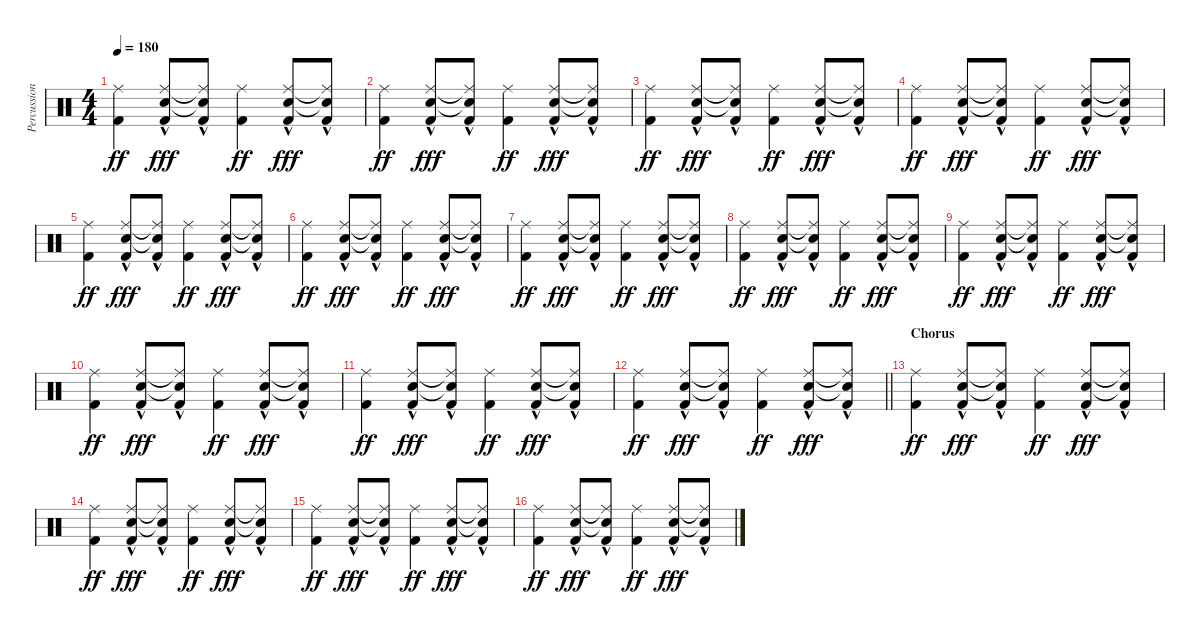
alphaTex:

\track ("Percussion" "Percussion") {instrument percussion}
\staff {score}
\articulation defaults
\ts (4 4)
\tempo 180
\clef neutral
\ks c
("Kick (hit) 2" "Ride (middle)").4{dy ff} ("Electric Snare (hit)" "Ride (middle)" "Kick (hit) 2"{hac}).8{dy fff} ("Electric Snare (hit)"{t} "Ride (middle)"{t} "Kick (hit) 2"{hac}).8 ("Kick (hit) 2" "Ride (middle)").4{dy ff} ("Electric Snare (hit)" "Ride (middle)" "Kick (hit) 2"{hac}).8{dy fff} ("Electric Snare (hit)"{t} "Ride (middle)"{t} "Kick (hit) 2"{hac}).8 |
("Kick (hit) 2" "Ride (middle)").4{dy ff} ("Electric Snare (hit)" "Ride (middle)" "Kick (hit) 2"{hac}).8{dy fff} ("Electric Snare (hit)"{t} "Ride (middle)"{t} "Kick (hit) 2"{hac}).8 ("Kick (hit) 2" "Ride (middle)").4{dy ff} ("Electric Snare (hit)" "Ride (middle)" "Kick (hit) 2"{hac}).8{dy fff} ("Electric Snare (hit)"{t} "Ride (middle)"{t} "Kick (hit) 2"{hac}).8 |
("Kick (hit) 2" "Ride (middle)").4{dy ff} ("Electric Snare (hit)" "Ride (middle)" "Kick (hit) 2"{hac}).8{dy fff} ("Electric Snare (hit)"{t} "Ride (middle)"{t} "Kick (hit) 2"{hac}).8 ("Kick (hit) 2" "Ride (middle)").4{dy ff} ("Electric Snare (hit)" "Ride (middle)" "Kick (hit) 2"{hac}).8{dy fff} ("Electric Snare (hit)"{t} "Ride (middle)"{t} "Kick (hit) 2"{hac}).8 |
("Kick (hit) 2" "Ride (middle)").4{dy ff} ("Electric Snare (hit)" "Ride (middle)" "Kick (hit) 2"{hac}).8{dy fff} ("Electric Snare (hit)"{t} "Ride (middle)"{t} "Kick (hit) 2"{hac}).8 ("Kick (hit) 2" "Ride (middle)").4{dy ff} ("Electric Snare (hit)" "Ride (middle)" "Kick (hit) 2"{hac}).8{dy fff} ("Electric Snare (hit)"{t} "Ride (middle)"{t} "Kick (hit) 2"{hac}).8 |
("Kick (hit) 2" "Ride (middle)").4{dy ff} ("Electric Snare (hit)" "Ride (middle)" "Kick (hit) 2"{hac}).8{dy fff} ("Electric Snare (hit)"{t} "Ride (middle)"{t} "Kick (hit) 2"{hac}).8 ("Kick (hit) 2" "Ride (middle)").4{dy ff} ("Electric Snare (hit)" "Ride (middle)" "Kick (hit) 2"{hac}).8{dy fff} ("Electric Snare (hit)"{t} "Ride (middle)"{t} "Kick (hit) 2"{hac}).8 |
("Kick (hit) 2" "Ride (middle)").4{dy ff} ("Electric Snare (hit)" "Ride (middle)" "Kick (hit) 2"{hac}).8{dy fff} ("Electric Snare (hit)"{t} "Ride (middle)"{t} "Kick (hit) 2"{hac}).8 ("Kick (hit) 2" "Ride (middle)").4{dy ff} ("Electric Snare (hit)" "Ride (middle)" "Kick (hit) 2"{hac}).8{dy fff} ("Electric Snare (hit)"{t} "Ride (middle)"{t} "Kick (hit) 2"{hac}).8 |
("Kick (hit) 2" "Ride (middle)").4{dy ff} ("Electric Snare (hit)" "Ride (middle)" "Kick (hit) 2"{hac}).8{dy fff} ("Electric Snare (hit)"{t} "Ride (middle)"{t} "Kick (hit) 2"{hac}).8 ("Kick (hit) 2" "Ride (middle)").4{dy ff} ("Electric Snare (hit)" "Ride (middle)" "Kick (hit) 2"{hac}).8{dy fff} ("Electric Snare (hit)"{t} "Ride (middle)"{t} "Kick (hit) 2"{hac}).8 |
("Kick (hit) 2" "Ride (middle)").4{dy ff} ("Electric Snare (hit)" "Ride (middle)" "Kick (hit) 2"{hac}).8{dy fff} ("Electric Snare (hit)"{t} "Ride (middle)"{t} "Kick (hit) 2"{hac}).8 ("Kick (hit) 2" "Ride (middle)").4{dy ff} ("Electric Snare (hit)" "Ride (middle)" "Kick (hit) 2"{hac}).8{dy fff} ("Electric Snare (hit)"{t} "Ride (middle)"{t} "Kick (hit) 2"{hac}).8 |
("Kick (hit) 2" "Ride (middle)").4{dy ff} ("Electric Snare (hit)" "Ride (middle)" "Kick (hit) 2"{hac}).8{dy fff} ("Electric Snare (hit)"{t} "Ride (middle)"{t} "Kick (hit) 2"{hac}).8 ("Kick (hit) 2" "Ride (middle)").4{dy ff} ("Electric Snare (hit)" "Ride (middle)" "Kick (hit) 2"{hac}).8{dy fff} ("Electric Snare (hit)"{t} "Ride (middle)"{t} "Kick (hit) 2"{hac}).8 |
("Kick (hit) 2" "Ride (middle)").4{dy ff} ("Electric Snare (hit)" "Ride (middle)" "Kick (hit) 2"{hac}).8{dy fff} ("Electric Snare (hit)"{t} "Ride (middle)"{t} "Kick (hit) 2"{hac}).8 ("Kick (hit) 2" "Ride (middle)").4{dy ff} ("Electric Snare (hit)" "Ride (middle)" "Kick (hit) 2"{hac}).8{dy fff} ("Electric Snare (hit)"{t} "Ride (middle)"{t} "Kick (hit) 2"{hac}).8 |
("Kick (hit) 2" "Ride (middle)").4{dy ff} ("Electric Snare (hit)" "Ride (middle)" "Kick (hit) 2"{hac}).8{dy fff} ("Electric Snare (hit)"{t} "Ride (middle)"{t} "Kick (hit) 2"{hac}).8 ("Kick (hit) 2" "Ride (middle)").4{dy ff} ("Electric Snare (hit)" "Ride (middle)" "Kick (hit) 2"{hac}).8{dy fff} ("Electric Snare (hit)"{t} "Ride (middle)"{t} "Kick (hit) 2"{hac}).8 |
\barLineRight lightlight
("Kick (hit) 2" "Ride (middle)").4{dy ff} ("Electric Snare (hit)" "Ride (middle)" "Kick (hit) 2"{hac}).8{dy fff} ("Electric Snare (hit)"{t} "Ride (middle)"{t} "Kick (hit) 2"{hac}).8 ("Kick (hit) 2" "Ride (middle)").4{dy ff} ("Electric Snare (hit)" "Ride (middle)" "Kick (hit) 2"{hac}).8{dy fff} ("Electric Snare (hit)"{t} "Ride (middle)"{t} "Kick (hit) 2"{hac}).8 |
\section ("" "Chorus")
("Kick (hit) 2" "Ride (middle)").4{dy ff} ("Electric Snare (hit)" "Ride (middle)" "Kick (hit) 2"{hac}).8{dy fff} ("Electric Snare (hit)"{t} "Ride (middle)"{t} "Kick (hit) 2"{hac}).8 ("Kick (hit) 2" "Ride (middle)").4{dy ff} ("Electric Snare (hit)" "Ride (middle)" "Kick (hit) 2"{hac}).8{dy fff} ("Electric Snare (hit)"{t} "Ride (middle)"{t} "Kick (hit) 2"{hac}).8 |
("Kick (hit) 2" "Ride (middle)").4{dy ff} ("Electric Snare (hit)" "Ride (middle)" "Kick (hit) 2"{hac}).8{dy fff} ("Electric Snare (hit)"{t} "Ride (middle)"{t} "Kick (hit) 2"{hac}).8 ("Kick (hit) 2" "Ride (middle)").4{dy ff} ("Electric Snare (hit)" "Ride (middle)" "Kick (hit) 2"{hac}).8{dy fff} ("Electric Snare (hit)"{t} "Ride (middle)"{t} "Kick (hit) 2"{hac}).8 |
("Kick (hit) 2" "Ride (middle)").4{dy ff} ("Electric Snare (hit)" "Ride (middle)" "Kick (hit) 2"{hac}).8{dy fff} ("Electric Snare (hit)"{t} "Ride (middle)"{t} "Kick (hit) 2"{hac}).8 ("Kick (hit) 2" "Ride (middle)").4{dy ff} ("Electric Snare (hit)" "Ride (middle)" "Kick (hit) 2"{hac}).8{dy fff} ("Electric Snare (hit)"{t} "Ride (middle)"{t} "Kick (hit) 2"{hac}).8 |
("Kick (hit) 2" "Ride (middle)").4{dy ff} ("Electric Snare (hit)" "Ride (middle)" "Kick (hit) 2"{hac}).8{dy fff} ("Electric Snare (hit)"{t} "Ride (middle)"{t} "Kick (hit) 2"{hac}).8 ("Kick (hit) 2" "Ride (middle)").4{dy ff} ("Electric Snare (hit)" "Ride (middle)" "Kick (hit) 2"{hac}).8{dy fff} ("Electric Snare (hit)"{t} "Ride (middle)"{t} "Kick (hit) 2"{hac}).8
